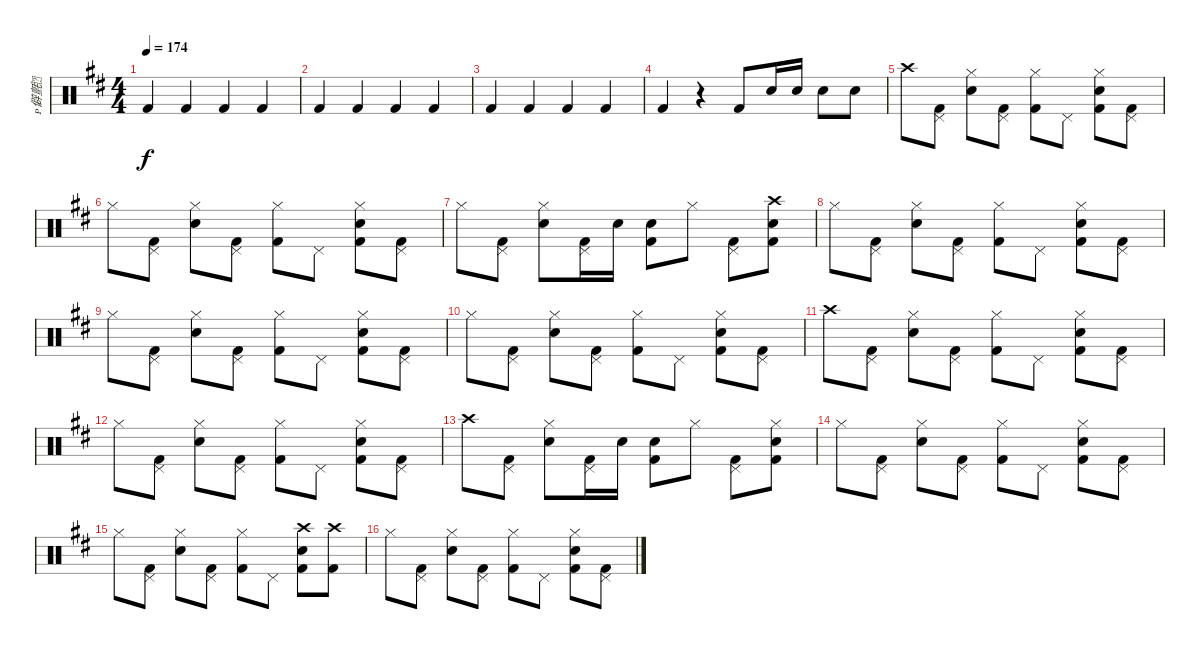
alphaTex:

\track ("僻氈" "僻氈") {instrument percussion}
\staff {score}
\articulation defaults
\ts (4 4)
\tempo 174
\clef neutral
\ks d "Kick (hit) 2".4{dy f} "Kick (hit) 2".4 "Kick (hit) 2".4 "Kick (hit) 2".4
|
"Kick (hit) 2".4 "Kick (hit) 2".4 "Kick (hit) 2".4 "Kick (hit) 2".4 |
"Kick (hit) 2".4 "Kick (hit) 2".4 "Kick (hit) 2".4 "Kick (hit) 2".4 |
"Kick (hit) 2".4 r.4 "Kick (hit) 2".8 "Electric Snare (hit)".16 "Electric Snare (hit)".16 "Electric Snare (hit)".8 "Electric Snare (hit)".8 |
"Crash high (hit)".8 ("Pedal Hi-Hat (hit)" "Kick (hit) 2").8 ("Hi-Hat (closed)" "Electric Snare (hit)").8 ("Pedal Hi-Hat (hit)" "Kick (hit) 2").8 ("Hi-Hat (closed)" "Kick (hit) 2").8 "Pedal Hi-Hat (hit)".8 ("Hi-Hat (closed)" "Electric Snare (hit)" "Kick (hit) 2").8 ("Pedal Hi-Hat (hit)" "Kick (hit) 2").8 |
"Hi-Hat (closed)".8 ("Pedal Hi-Hat (hit)" "Kick (hit) 2").8 ("Hi-Hat (closed)" "Electric Snare (hit)").8 ("Pedal Hi-Hat (hit)" "Kick (hit) 2").8 ("Hi-Hat (closed)" "Kick (hit) 2").8 "Pedal Hi-Hat (hit)".8 ("Hi-Hat (closed)" "Electric Snare (hit)" "Kick (hit) 2").8 ("Pedal Hi-Hat (hit)" "Kick (hit) 2").8 |
"Hi-Hat (closed)".8 ("Pedal Hi-Hat (hit)" "Kick (hit) 2").8 ("Hi-Hat (closed)" "Electric Snare (hit)").8 ("Pedal Hi-Hat (hit)" "Kick (hit) 2").16 "Electric Snare (hit)".16 ("Electric Snare (hit)" "Kick (hit) 2").8 "Hi-Hat (closed)".8 ("Pedal Hi-Hat (hit)" "Kick (hit) 2").8 ("Crash high (hit)" "Electric Snare (hit)" "Kick (hit) 2").8 |
"Hi-Hat (closed)".8 ("Pedal Hi-Hat (hit)" "Kick (hit) 2").8 ("Hi-Hat (closed)" "Electric Snare (hit)").8 ("Pedal Hi-Hat (hit)" "Kick (hit) 2").8 ("Hi-Hat (closed)" "Kick (hit) 2").8 "Pedal Hi-Hat (hit)".8 ("Hi-Hat (closed)" "Electric Snare (hit)" "Kick (hit) 2").8 ("Pedal Hi-Hat (hit)" "Kick (hit) 2").8 |
"Hi-Hat (closed)".8 ("Pedal Hi-Hat (hit)" "Kick (hit) 2").8 ("Hi-Hat (closed)" "Electric Snare (hit)").8 ("Pedal Hi-Hat (hit)" "Kick (hit) 2").8 ("Hi-Hat (closed)" "Kick (hit) 2").8 "Pedal Hi-Hat (hit)".8 ("Hi-Hat (closed)" "Electric Snare (hit)" "Kick (hit) 2").8 ("Pedal Hi-Hat (hit)" "Kick (hit) 2").8 |
"Hi-Hat (closed)".8 ("Pedal Hi-Hat (hit)" "Kick (hit) 2").8 ("Hi-Hat (closed)" "Electric Snare (hit)").8 ("Pedal Hi-Hat (hit)" "Kick (hit) 2").8 ("Hi-Hat (closed)" "Kick (hit) 2").8 "Pedal Hi-Hat (hit)".8 ("Hi-Hat (closed)" "Electric Snare (hit)" "Kick (hit) 2").8 ("Pedal Hi-Hat (hit)" "Kick (hit) 2").8 |
"Crash high (hit)".8 ("Pedal Hi-Hat (hit)" "Kick (hit) 2").8 ("Hi-Hat (closed)" "Electric Snare (hit)").8 ("Pedal Hi-Hat (hit)" "Kick (hit) 2").8 ("Hi-Hat (closed)" "Kick (hit) 2").8 "Pedal Hi-Hat (hit)".8 ("Hi-Hat (closed)" "Electric Snare (hit)" "Kick (hit) 2").8 ("Pedal Hi-Hat (hit)" "Kick (hit) 2").8 |
"Hi-Hat (closed)".8 ("Pedal Hi-Hat (hit)" "Kick (hit) 2").8 ("Hi-Hat (closed)" "Electric Snare (hit)").8 ("Pedal Hi-Hat (hit)" "Kick (hit) 2").8 ("Hi-Hat (closed)" "Kick (hit) 2").8 "Pedal Hi-Hat (hit)".8 ("Hi-Hat (closed)" "Electric Snare (hit)" "Kick (hit) 2").8 ("Pedal Hi-Hat (hit)" "Kick (hit) 2").8 |
"Crash high (hit)".8 ("Pedal Hi-Hat (hit)" "Kick (hit) 2").8 ("Hi-Hat (closed)" "Electric Snare (hit)").8 ("Pedal Hi-Hat (hit)" "Kick (hit) 2").16 "Electric Snare (hit)".16 ("Electric Snare (hit)" "Kick (hit) 2").8 "Hi-Hat (closed)".8 ("Pedal Hi-Hat (hit)" "Kick (hit) 2").8 ("Hi-Hat (closed)" "Electric Snare (hit)" "Kick (hit) 2").8 |
"Hi-Hat (closed)".8 ("Pedal Hi-Hat (hit)" "Kick (hit) 2").8 ("Hi-Hat (closed)" "Electric Snare (hit)").8 ("Pedal Hi-Hat (hit)" "Kick (hit) 2").8 ("Hi-Hat (closed)" "Kick (hit) 2").8 "Pedal Hi-Hat (hit)".8 ("Hi-Hat (closed)" "Electric Snare (hit)" "Kick (hit) 2").8 ("Pedal Hi-Hat (hit)" "Kick (hit) 2").8 |
"Hi-Hat (closed)".8 ("Pedal Hi-Hat (hit)" "Kick (hit) 2").8 ("Hi-Hat (closed)" "Electric Snare (hit)").8 ("Pedal Hi-Hat (hit)" "Kick (hit) 2").8 ("Hi-Hat (closed)" "Kick (hit) 2").8 "Pedal Hi-Hat (hit)".8 ("Crash high (hit)" "Electric Snare (hit)" "Kick (hit) 2").8 ("Crash high (hit)" "Kick (hit) 2").8 |
"Hi-Hat (closed)".8 ("Pedal Hi-Hat (hit)" "Kick (hit) 2").8 ("Hi-Hat (closed)" "Electric Snare (hit)").8 ("Pedal Hi-Hat (hit)" "Kick (hit) 2").8 ("Hi-Hat (closed)" "Kick (hit) 2").8 "Pedal Hi-Hat (hit)".8 ("Hi-Hat (closed)" "Electric Snare (hit)" "Kick (hit) 2").8 ("Pedal Hi-Hat (hit)" "Kick (hit) 2").8
